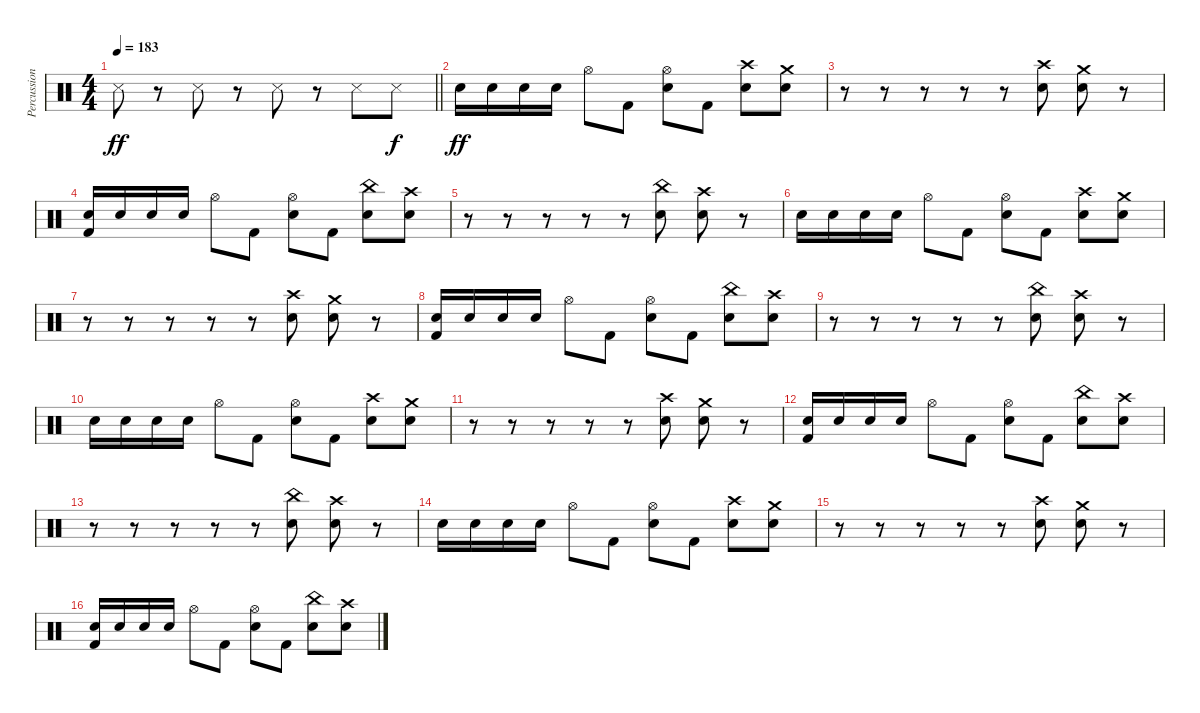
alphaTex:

\track ("Percussion" "Percussion") {instrument percussion}
\staff {score}
\articulation defaults
\ts (4 4)
\tempo 183
\clef neutral
\barLineRight lightlight
\ks c "Snare (side stick) 3".8{dy ff}
r.8 "Snare (side stick) 3".8 r.8 "Snare (side stick) 3".8 r.8 "Snare (side stick) 3".8 "Snare (side stick) 3".8{dy f} |
\section ("" "")
"Electric Snare (hit)".16{dy ff} "Electric Snare (hit)".16 "Electric Snare (hit)".16 "Electric Snare (hit)".16 "Hi-Hat (open)".8 "Kick (hit) 2".8 ("Hi-Hat (open)" "Electric Snare (hit)").8 "Kick (hit) 2".8 ("Crash high (hit)" "Electric Snare (hit)").8 ("Crash medium (hit)" "Electric Snare (hit)").8 |
r.8 r.8 r.8 r.8 r.8 ("Crash high (hit)" "Electric Snare (hit)").8 ("Crash medium (hit)" "Electric Snare (hit)").8 r.8 |
("Electric Snare (hit)" "Kick (hit) 2").16 "Electric Snare (hit)".16 "Electric Snare (hit)".16 "Electric Snare (hit)".16 "Hi-Hat (open)".8 "Kick (hit) 2".8 ("Hi-Hat (open)" "Electric Snare (hit)").8 "Kick (hit) 2".8 ("China (hit)" "Electric Snare (hit)").8 ("Crash high (hit)" "Electric Snare (hit)").8 |
r.8 r.8 r.8 r.8 r.8 ("China (hit)" "Electric Snare (hit)").8 ("Crash high (hit)" "Electric Snare (hit)").8 r.8 |
"Electric Snare (hit)".16 "Electric Snare (hit)".16 "Electric Snare (hit)".16 "Electric Snare (hit)".16 "Hi-Hat (open)".8 "Kick (hit) 2".8 ("Hi-Hat (open)" "Electric Snare (hit)").8 "Kick (hit) 2".8 ("Crash high (hit)" "Electric Snare (hit)").8 ("Crash medium (hit)" "Electric Snare (hit)").8 |
r.8 r.8 r.8 r.8 r.8 ("Crash high (hit)" "Electric Snare (hit)").8 ("Crash medium (hit)" "Electric Snare (hit)").8 r.8 |
("Electric Snare (hit)" "Kick (hit) 2").16 "Electric Snare (hit)".16 "Electric Snare (hit)".16 "Electric Snare (hit)".16 "Hi-Hat (open)".8 "Kick (hit) 2".8 ("Hi-Hat (open)" "Electric Snare (hit)").8 "Kick (hit) 2".8 ("China (hit)" "Electric Snare (hit)").8 ("Crash high (hit)" "Electric Snare (hit)").8 |
r.8 r.8 r.8 r.8 r.8 ("China (hit)" "Electric Snare (hit)").8 ("Crash high (hit)" "Electric Snare (hit)").8 r.8 |
"Electric Snare (hit)".16 "Electric Snare (hit)".16 "Electric Snare (hit)".16 "Electric Snare (hit)".16 "Hi-Hat (open)".8 "Kick (hit) 2".8 ("Hi-Hat (open)" "Electric Snare (hit)").8 "Kick (hit) 2".8 ("Crash high (hit)" "Electric Snare (hit)").8 ("Crash medium (hit)" "Electric Snare (hit)").8 |
r.8 r.8 r.8 r.8 r.8 ("Crash high (hit)" "Electric Snare (hit)").8 ("Crash medium (hit)" "Electric Snare (hit)").8 r.8 |
("Electric Snare (hit)" "Kick (hit) 2").16 "Electric Snare (hit)".16 "Electric Snare (hit)".16 "Electric Snare (hit)".16 "Hi-Hat (open)".8 "Kick (hit) 2".8 ("Hi-Hat (open)" "Electric Snare (hit)").8 "Kick (hit) 2".8 ("China (hit)" "Electric Snare (hit)").8 ("Crash high (hit)" "Electric Snare (hit)").8 |
r.8 r.8 r.8 r.8 r.8 ("China (hit)" "Electric Snare (hit)").8 ("Crash high (hit)" "Electric Snare (hit)").8 r.8 |
"Electric Snare (hit)".16 "Electric Snare (hit)".16 "Electric Snare (hit)".16 "Electric Snare (hit)".16 "Hi-Hat (open)".8 "Kick (hit) 2".8 ("Hi-Hat (open)" "Electric Snare (hit)").8 "Kick (hit) 2".8 ("Crash high (hit)" "Electric Snare (hit)").8 ("Crash medium (hit)" "Electric Snare (hit)").8 |
r.8 r.8 r.8 r.8 r.8 ("Crash high (hit)" "Electric Snare (hit)").8 ("Crash medium (hit)" "Electric Snare (hit)").8 r.8 |
("Electric Snare (hit)" "Kick (hit) 2").16 "Electric Snare (hit)".16 "Electric Snare (hit)".16 "Electric Snare (hit)".16 "Hi-Hat (open)".8 "Kick (hit) 2".8 ("Hi-Hat (open)" "Electric Snare (hit)").8 "Kick (hit) 2".8 ("China (hit)" "Electric Snare (hit)").8 ("Crash high (hit)" "Electric Snare (hit)").8
